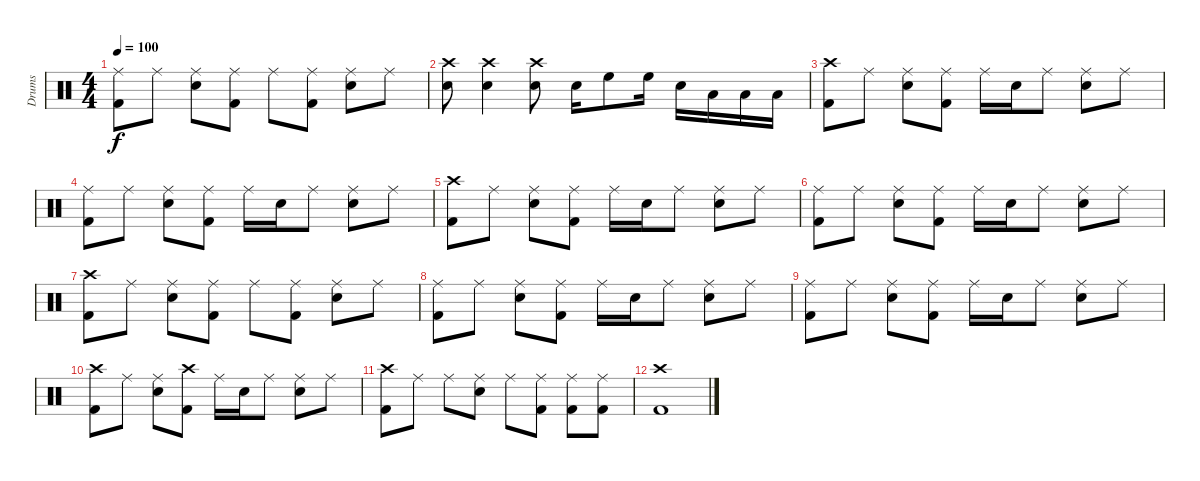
\track ("Drums" "Drums") {instrument percussion}
\staff {score}
\articulation defaults
\ts (4 4)
\tempo 100
\clef neutral
\ks c
("Ride (middle)" "Kick (hit) 2").8{dy f} "Ride (middle)".8 ("Ride (middle)" "Snare (hit) 2").8 ("Ride (middle)" "Kick (hit) 2").8 "Ride (middle)".8 ("Ride (middle)" "Kick (hit) 2").8 ("Ride (middle)" "Snare (hit) 2").8 "Ride (middle)".8 |
("Crash high (hit)" "Snare (hit) 2").8 ("Crash high (hit)" "Snare (hit) 2").4 ("Crash high (hit)" "Snare (hit) 2").8 "Snare (hit) 2".16 "High Floor Tom (hit)".8 "High Floor Tom (hit)".16 "Snare (hit) 2".16 "Low Floor Tom (hit)".16 "Low Floor Tom (hit)".16 "Low Floor Tom (hit)".16 |
("Crash high (hit)" "Kick (hit) 2").8 "Ride (middle)".8 ("Ride (middle)" "Snare (hit) 2").8 ("Ride (middle)" "Kick (hit) 2").8 "Ride (middle)".16 "Snare (hit) 2".16 "Ride (middle)".8 ("Ride (middle)" "Snare (hit) 2").8 "Ride (middle)".8 |
("Ride (middle)" "Kick (hit) 2").8 "Ride (middle)".8 ("Ride (middle)" "Snare (hit) 2").8 ("Ride (middle)" "Kick (hit) 2").8 "Ride (middle)".16 "Snare (hit) 2".16 "Ride (middle)".8 ("Ride (middle)" "Snare (hit) 2").8 "Ride (middle)".8 |
("Crash high (hit)" "Kick (hit) 2").8 "Ride (middle)".8 ("Ride (middle)" "Snare (hit) 2").8 ("Ride (middle)" "Kick (hit) 2").8 "Ride (middle)".16 "Snare (hit) 2".16 "Ride (middle)".8 ("Ride (middle)" "Snare (hit) 2").8 "Ride (middle)".8 |
("Ride (middle)" "Kick (hit) 2").8 "Ride (middle)".8 ("Ride (middle)" "Snare (hit) 2").8 ("Ride (middle)" "Kick (hit) 2").8 "Ride (middle)".16 "Snare (hit) 2".16 "Ride (middle)".8 ("Ride (middle)" "Snare (hit) 2").8 "Ride (middle)".8 |
("Crash high (hit)" "Kick (hit) 2").8 "Ride (middle)".8 ("Ride (middle)" "Snare (hit) 2").8 ("Ride (middle)" "Kick (hit) 2").8 "Ride (middle)".8 ("Ride (middle)" "Kick (hit) 2").8 ("Ride (middle)" "Snare (hit) 2").8 "Ride (middle)".8 |
("Ride (middle)" "Kick (hit) 2").8 "Ride (middle)".8 ("Ride (middle)" "Snare (hit) 2").8 ("Ride (middle)" "Kick (hit) 2").8 "Ride (middle)".16 "Snare (hit) 2".16 "Ride (middle)".8 ("Ride (middle)" "Snare (hit) 2").8 "Ride (middle)".8 |
("Ride (middle)" "Kick (hit) 2").8 "Ride (middle)".8 ("Ride (middle)" "Snare (hit) 2").8 ("Ride (middle)" "Kick (hit) 2").8 "Ride (middle)".16 "Snare (hit) 2".16 "Ride (middle)".8 ("Ride (middle)" "Snare (hit) 2").8 "Ride (middle)".8 |
("Crash high (hit)" "Kick (hit) 2").8 "Ride (middle)".8 ("Ride (middle)" "Snare (hit) 2").8 ("Crash high (hit)" "Kick (hit) 2").8 "Ride (middle)".16 "Snare (hit) 2".16 "Ride (middle)".8 ("Ride (middle)" "Snare (hit) 2").8 "Ride (middle)".8 |
("Crash high (hit)" "Kick (hit) 2").8 "Ride (middle)".8 "Ride (middle)".8 ("Ride (middle)" "Snare (hit) 2").8 "Ride (middle)".8 ("Ride (middle)" "Kick (hit) 2").8 ("Ride (middle)" "Kick (hit) 2").8 ("Ride (middle)" "Kick (hit) 2").8 |
("Crash high (hit)" "Kick (hit) 2").1
